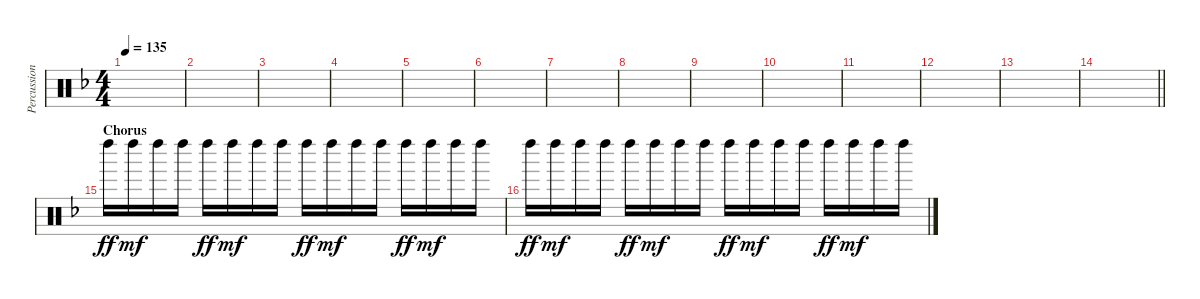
\track ("Percussions" "Percussion") {instrument percussion}
\staff {score}
\articulation defaults
\ts (4 4)
\tempo 135
\clef neutral
\ks f
|
|
|
|
|
|
|
|
|
|
|
|
|
\barLineRight lightlight
|
\section ("" "Chorus")
"Left Maraca (hit)".16{dy ff} "Left Maraca (hit)".16{dy mf} "Left Maraca (hit)".16 "Left Maraca (hit)".16 "Left Maraca (hit)".16{dy ff} "Left Maraca (hit)".16{dy mf} "Left Maraca (hit)".16 "Left Maraca (hit)".16 "Left Maraca (hit)".16{dy ff} "Left Maraca (hit)".16{dy mf} "Left Maraca (hit)".16 "Left Maraca (hit)".16 "Left Maraca (hit)".16{dy ff} "Left Maraca (hit)".16{dy mf} "Left Maraca (hit)".16 "Left Maraca (hit)".16 |
"Left Maraca (hit)".16{dy ff} "Left Maraca (hit)".16{dy mf} "Left Maraca (hit)".16 "Left Maraca (hit)".16 "Left Maraca (hit)".16{dy ff} "Left Maraca (hit)".16{dy mf} "Left Maraca (hit)".16 "Left Maraca (hit)".16 "Left Maraca (hit)".16{dy ff} "Left Maraca (hit)".16{dy mf} "Left Maraca (hit)".16 "Left Maraca (hit)".16 "Left Maraca (hit)".16{dy ff} "Left Maraca (hit)".16{dy mf} "Left Maraca (hit)".16 "Left Maraca (hit)".16
